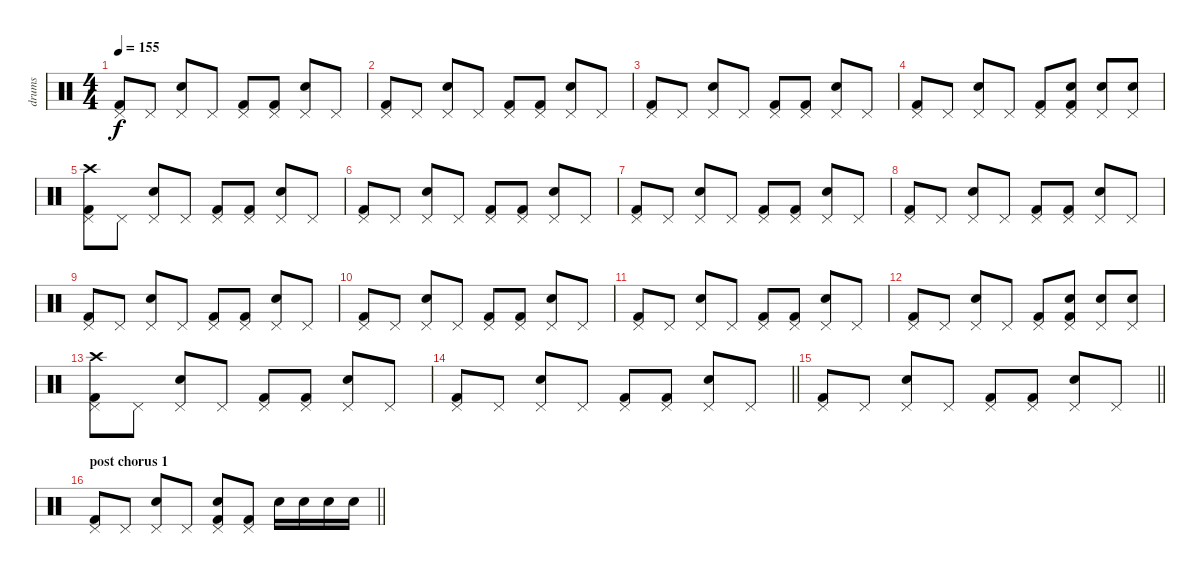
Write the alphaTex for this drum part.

\track ("drums" "drums") {instrument percussion}
\staff {score}
\articulation defaults
\ts (4 4)
\tempo 155
\clef neutral
\ks c
("Kick (hit) 2" "Pedal Hi-Hat (hit)").8{dy f} "Pedal Hi-Hat (hit)".8 ("Electric Snare (hit)" "Pedal Hi-Hat (hit)").8 "Pedal Hi-Hat (hit)".8 ("Kick (hit) 2" "Pedal Hi-Hat (hit)").8 ("Kick (hit) 2" "Pedal Hi-Hat (hit)").8 ("Electric Snare (hit)" "Pedal Hi-Hat (hit)").8 "Pedal Hi-Hat (hit)".8 |
("Kick (hit) 2" "Pedal Hi-Hat (hit)").8 "Pedal Hi-Hat (hit)".8 ("Electric Snare (hit)" "Pedal Hi-Hat (hit)").8 "Pedal Hi-Hat (hit)".8 ("Kick (hit) 2" "Pedal Hi-Hat (hit)").8 ("Kick (hit) 2" "Pedal Hi-Hat (hit)").8 ("Electric Snare (hit)" "Pedal Hi-Hat (hit)").8 "Pedal Hi-Hat (hit)".8 |
("Kick (hit) 2" "Pedal Hi-Hat (hit)").8 "Pedal Hi-Hat (hit)".8 ("Electric Snare (hit)" "Pedal Hi-Hat (hit)").8 "Pedal Hi-Hat (hit)".8 ("Kick (hit) 2" "Pedal Hi-Hat (hit)").8 ("Kick (hit) 2" "Pedal Hi-Hat (hit)").8 ("Electric Snare (hit)" "Pedal Hi-Hat (hit)").8 "Pedal Hi-Hat (hit)".8 |
("Kick (hit) 2" "Pedal Hi-Hat (hit)").8 "Pedal Hi-Hat (hit)".8 ("Electric Snare (hit)" "Pedal Hi-Hat (hit)").8 "Pedal Hi-Hat (hit)".8 ("Kick (hit) 2" "Pedal Hi-Hat (hit)").8 ("Kick (hit) 2" "Electric Snare (hit)" "Pedal Hi-Hat (hit)").8 ("Electric Snare (hit)" "Pedal Hi-Hat (hit)").8 ("Electric Snare (hit)" "Pedal Hi-Hat (hit)").8 |
("Kick (hit) 2" "Pedal Hi-Hat (hit)" "Crash high (hit)").8 "Pedal Hi-Hat (hit)".8 ("Electric Snare (hit)" "Pedal Hi-Hat (hit)").8 "Pedal Hi-Hat (hit)".8 ("Kick (hit) 2" "Pedal Hi-Hat (hit)").8 ("Kick (hit) 2" "Pedal Hi-Hat (hit)").8 ("Electric Snare (hit)" "Pedal Hi-Hat (hit)").8 "Pedal Hi-Hat (hit)".8 |
("Kick (hit) 2" "Pedal Hi-Hat (hit)").8 "Pedal Hi-Hat (hit)".8 ("Electric Snare (hit)" "Pedal Hi-Hat (hit)").8 "Pedal Hi-Hat (hit)".8 ("Kick (hit) 2" "Pedal Hi-Hat (hit)").8 ("Kick (hit) 2" "Pedal Hi-Hat (hit)").8 ("Electric Snare (hit)" "Pedal Hi-Hat (hit)").8 "Pedal Hi-Hat (hit)".8 |
("Kick (hit) 2" "Pedal Hi-Hat (hit)").8 "Pedal Hi-Hat (hit)".8 ("Electric Snare (hit)" "Pedal Hi-Hat (hit)").8 "Pedal Hi-Hat (hit)".8 ("Kick (hit) 2" "Pedal Hi-Hat (hit)").8 ("Kick (hit) 2" "Pedal Hi-Hat (hit)").8 ("Electric Snare (hit)" "Pedal Hi-Hat (hit)").8 "Pedal Hi-Hat (hit)".8 |
("Kick (hit) 2" "Pedal Hi-Hat (hit)").8 "Pedal Hi-Hat (hit)".8 ("Electric Snare (hit)" "Pedal Hi-Hat (hit)").8 "Pedal Hi-Hat (hit)".8 ("Kick (hit) 2" "Pedal Hi-Hat (hit)").8 ("Kick (hit) 2" "Pedal Hi-Hat (hit)").8 ("Electric Snare (hit)" "Pedal Hi-Hat (hit)").8 "Pedal Hi-Hat (hit)".8 |
("Kick (hit) 2" "Pedal Hi-Hat (hit)").8 "Pedal Hi-Hat (hit)".8 ("Electric Snare (hit)" "Pedal Hi-Hat (hit)").8 "Pedal Hi-Hat (hit)".8 ("Kick (hit) 2" "Pedal Hi-Hat (hit)").8 ("Kick (hit) 2" "Pedal Hi-Hat (hit)").8 ("Electric Snare (hit)" "Pedal Hi-Hat (hit)").8 "Pedal Hi-Hat (hit)".8 |
("Kick (hit) 2" "Pedal Hi-Hat (hit)").8 "Pedal Hi-Hat (hit)".8 ("Electric Snare (hit)" "Pedal Hi-Hat (hit)").8 "Pedal Hi-Hat (hit)".8 ("Kick (hit) 2" "Pedal Hi-Hat (hit)").8 ("Kick (hit) 2" "Pedal Hi-Hat (hit)").8 ("Electric Snare (hit)" "Pedal Hi-Hat (hit)").8 "Pedal Hi-Hat (hit)".8 |
("Kick (hit) 2" "Pedal Hi-Hat (hit)").8 "Pedal Hi-Hat (hit)".8 ("Electric Snare (hit)" "Pedal Hi-Hat (hit)").8 "Pedal Hi-Hat (hit)".8 ("Kick (hit) 2" "Pedal Hi-Hat (hit)").8 ("Kick (hit) 2" "Pedal Hi-Hat (hit)").8 ("Electric Snare (hit)" "Pedal Hi-Hat (hit)").8 "Pedal Hi-Hat (hit)".8 |
("Kick (hit) 2" "Pedal Hi-Hat (hit)").8 "Pedal Hi-Hat (hit)".8 ("Electric Snare (hit)" "Pedal Hi-Hat (hit)").8 "Pedal Hi-Hat (hit)".8 ("Kick (hit) 2" "Pedal Hi-Hat (hit)").8 ("Kick (hit) 2" "Electric Snare (hit)" "Pedal Hi-Hat (hit)").8 ("Electric Snare (hit)" "Pedal Hi-Hat (hit)").8 ("Electric Snare (hit)" "Pedal Hi-Hat (hit)").8 |
("Kick (hit) 2" "Pedal Hi-Hat (hit)" "Crash high (hit)").8 "Pedal Hi-Hat (hit)".8 ("Electric Snare (hit)" "Pedal Hi-Hat (hit)").8 "Pedal Hi-Hat (hit)".8 ("Kick (hit) 2" "Pedal Hi-Hat (hit)").8 ("Kick (hit) 2" "Pedal Hi-Hat (hit)").8 ("Electric Snare (hit)" "Pedal Hi-Hat (hit)").8 "Pedal Hi-Hat (hit)".8 |
\barLineRight lightlight
("Kick (hit) 2" "Pedal Hi-Hat (hit)").8 "Pedal Hi-Hat (hit)".8 ("Electric Snare (hit)" "Pedal Hi-Hat (hit)").8 "Pedal Hi-Hat (hit)".8 ("Kick (hit) 2" "Pedal Hi-Hat (hit)").8 ("Kick (hit) 2" "Pedal Hi-Hat (hit)").8 ("Electric Snare (hit)" "Pedal Hi-Hat (hit)").8 "Pedal Hi-Hat (hit)".8 |
\barLineRight lightlight
("Kick (hit) 2" "Pedal Hi-Hat (hit)").8 "Pedal Hi-Hat (hit)".8 ("Electric Snare (hit)" "Pedal Hi-Hat (hit)").8 "Pedal Hi-Hat (hit)".8 ("Kick (hit) 2" "Pedal Hi-Hat (hit)").8 ("Kick (hit) 2" "Pedal Hi-Hat (hit)").8 ("Electric Snare (hit)" "Pedal Hi-Hat (hit)").8 "Pedal Hi-Hat (hit)".8 |
\section ("" "post chorus 1")
\barLineRight lightlight
("Kick (hit) 2" "Pedal Hi-Hat (hit)").8 "Pedal Hi-Hat (hit)".8 ("Electric Snare (hit)" "Pedal Hi-Hat (hit)").8 "Pedal Hi-Hat (hit)".8 ("Kick (hit) 2" "Electric Snare (hit)" "Pedal Hi-Hat (hit)").8 ("Kick (hit) 2" "Pedal Hi-Hat (hit)").8 "Electric Snare (hit)".16 "Electric Snare (hit)".16 "Electric Snare (hit)".16 "Electric Snare (hit)".16
